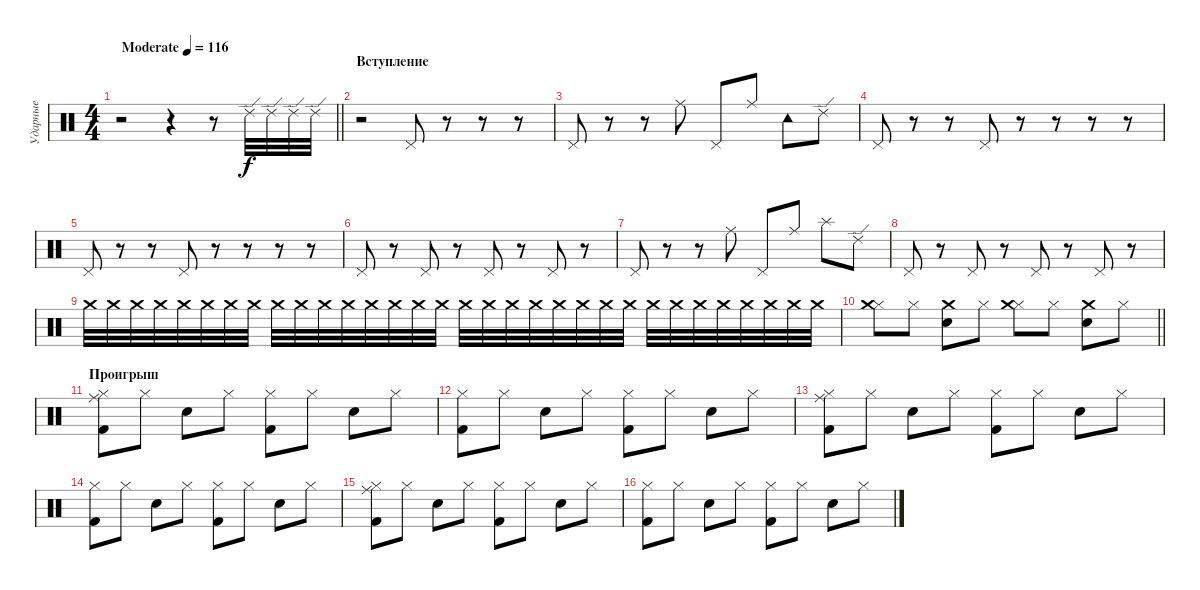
\track ("Ударные" "Ударные") {instrument percussion}
\staff {score}
\articulation defaults
\ts (4 4)
\tempo (116 "Moderate")
\clef neutral
\barLineRight lightlight
\ks c
r.2{dy f} r.4 r.8 "Ride (edge) 2".32 "Ride (edge) 2".32 "Ride (edge) 2".32 "Ride (edge) 2".32 |
\section ("" "Вступление")
r.2 "Pedal Hi-Hat (hit)".8 r.8 r.8 r.8 |
"Pedal Hi-Hat (hit)".8 r.8 r.8 "Ride (middle)".8 "Pedal Hi-Hat (hit)".8 "Ride (middle)".8 "Tambourine (hit)".8 "Ride (edge) 2".8 |
"Pedal Hi-Hat (hit)".8 r.8 r.8 "Pedal Hi-Hat (hit)".8 r.8 r.8 r.8 r.8 |
"Pedal Hi-Hat (hit)".8 r.8 r.8 "Pedal Hi-Hat (hit)".8 r.8 r.8 r.8 r.8 |
"Pedal Hi-Hat (hit)".8 r.8 "Pedal Hi-Hat (hit)".8 r.8 "Pedal Hi-Hat (hit)".8 r.8 "Pedal Hi-Hat (hit)".8 r.8 |
"Pedal Hi-Hat (hit)".8 r.8 r.8 "Ride (middle)".8 "Pedal Hi-Hat (hit)".8 "Ride (middle)".8 "Splash (hit)".8 "Ride (edge) 2".8 |
"Pedal Hi-Hat (hit)".8 r.8 "Pedal Hi-Hat (hit)".8 r.8 "Pedal Hi-Hat (hit)".8 r.8 "Pedal Hi-Hat (hit)".8{volume 7} r.8 |
"Crash medium (hit)".32{volume 16} "Crash medium (hit)".32 "Crash medium (hit)".32 "Crash medium (hit)".32 "Crash medium (hit)".32 "Crash medium (hit)".32 "Crash medium (hit)".32 "Crash medium (hit)".32 "Crash medium (hit)".32 "Crash medium (hit)".32 "Crash medium (hit)".32 "Crash medium (hit)".32 "Crash medium (hit)".32 "Crash medium (hit)".32 "Crash medium (hit)".32 "Crash medium (hit)".32 "Crash medium (hit)".32 "Crash medium (hit)".32 "Crash medium (hit)".32 "Crash medium (hit)".32 "Crash medium (hit)".32 "Crash medium (hit)".32 "Crash medium (hit)".32 "Crash medium (hit)".32 "Crash medium (hit)".32 "Crash medium (hit)".32 "Crash medium (hit)".32 "Crash medium (hit)".32 "Crash medium (hit)".32 "Crash medium (hit)".32 "Crash medium (hit)".32 "Crash medium (hit)".32 |
\barLineRight lightlight
("Hi-Hat (closed)" "Crash medium (hit)").8 "Hi-Hat (closed)".8 ("Snare (hit) 2" "Crash medium (hit)").8 "Hi-Hat (closed)".8 ("Hi-Hat (closed)" "Crash medium (hit)").8 "Hi-Hat (closed)".8 ("Snare (hit) 2" "Crash medium (hit)").8 "Hi-Hat (closed)".8 |
\section ("" "Проигрыш")
("Hi-Hat (closed)" "Kick (hit) 2" "Ride (middle)").8 "Hi-Hat (closed)".8 "Snare (hit) 2".8 "Hi-Hat (closed)".8 ("Hi-Hat (closed)" "Kick (hit) 2").8 "Hi-Hat (closed)".8 "Snare (hit) 2".8 "Hi-Hat (closed)".8 |
("Hi-Hat (closed)" "Kick (hit) 2").8 "Hi-Hat (closed)".8 "Snare (hit) 2".8 "Hi-Hat (closed)".8 ("Hi-Hat (closed)" "Kick (hit) 2").8 "Hi-Hat (closed)".8 "Snare (hit) 2".8 "Hi-Hat (closed)".8 |
("Hi-Hat (closed)" "Kick (hit) 2" "Ride (middle)").8 "Hi-Hat (closed)".8 "Snare (hit) 2".8 "Hi-Hat (closed)".8 ("Hi-Hat (closed)" "Kick (hit) 2").8 "Hi-Hat (closed)".8 "Snare (hit) 2".8 "Hi-Hat (closed)".8 |
("Hi-Hat (closed)" "Kick (hit) 2").8 "Hi-Hat (closed)".8 "Snare (hit) 2".8 "Hi-Hat (closed)".8 ("Hi-Hat (closed)" "Kick (hit) 2").8 "Hi-Hat (closed)".8 "Snare (hit) 2".8 "Hi-Hat (closed)".8 |
("Hi-Hat (closed)" "Kick (hit) 2" "Ride (middle)").8 "Hi-Hat (closed)".8 "Snare (hit) 2".8 "Hi-Hat (closed)".8 ("Hi-Hat (closed)" "Kick (hit) 2").8 "Hi-Hat (closed)".8 "Snare (hit) 2".8 "Hi-Hat (closed)".8 |
("Hi-Hat (closed)" "Kick (hit) 2").8 "Hi-Hat (closed)".8 "Snare (hit) 2".8 "Hi-Hat (closed)".8 ("Hi-Hat (closed)" "Kick (hit) 2").8 "Hi-Hat (closed)".8 "Snare (hit) 2".8 "Hi-Hat (closed)".8
